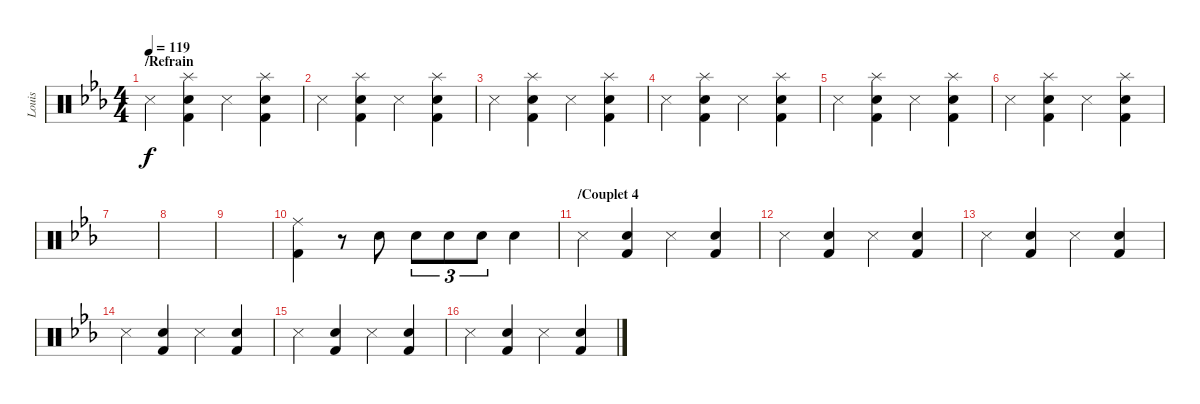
\track ("Louis" "Louis") {instrument percussion}
\staff {score}
\articulation defaults
\ts (4 4)
\section ("" "/Refrain")
\tempo 119
\clef neutral
\ks cminor "Metronome (hit)".4{dy f}
("Splash (hit)" "Kick (hit) 2" "Snare (hit) 2").4 "Metronome (hit)".4 ("Splash (hit)" "Kick (hit) 2" "Snare (hit) 2").4 |
"Metronome (hit)".4 ("Splash (hit)" "Kick (hit) 2" "Snare (hit) 2").4 "Metronome (hit)".4 ("Splash (hit)" "Kick (hit) 2" "Snare (hit) 2").4 |
"Metronome (hit)".4 ("Splash (hit)" "Kick (hit) 2" "Snare (hit) 2").4 "Metronome (hit)".4 ("Splash (hit)" "Kick (hit) 2" "Snare (hit) 2").4 |
"Metronome (hit)".4 ("Splash (hit)" "Kick (hit) 2" "Snare (hit) 2").4 "Metronome (hit)".4 ("Splash (hit)" "Kick (hit) 2" "Snare (hit) 2").4 |
"Metronome (hit)".4 ("Splash (hit)" "Kick (hit) 2" "Snare (hit) 2").4 "Metronome (hit)".4 ("Splash (hit)" "Kick (hit) 2" "Snare (hit) 2").4 |
"Metronome (hit)".4 ("Splash (hit)" "Kick (hit) 2" "Snare (hit) 2").4 "Metronome (hit)".4 ("Splash (hit)" "Kick (hit) 2" "Snare (hit) 2").4 |
|
|
|
("Ride (middle)" "Kick (hit) 2").4 r.8 "Electric Snare (hit)".8 "Electric Snare (hit)".8{tu (3 2)} "Electric Snare (hit)".8{tu (3 2)} "Electric Snare (hit)".8{tu (3 2)} "Electric Snare (hit)".4 |
\section ("" "/Couplet 4")
"Metronome (hit)".4 ("Kick (hit) 2" "Snare (hit) 2").4 "Metronome (hit)".4 ("Kick (hit) 2" "Snare (hit) 2").4 |
"Metronome (hit)".4 ("Kick (hit) 2" "Snare (hit) 2").4 "Metronome (hit)".4 ("Kick (hit) 2" "Snare (hit) 2").4 |
"Metronome (hit)".4 ("Kick (hit) 2" "Snare (hit) 2").4 "Metronome (hit)".4 ("Kick (hit) 2" "Snare (hit) 2").4 |
"Metronome (hit)".4 ("Kick (hit) 2" "Snare (hit) 2").4 "Metronome (hit)".4 ("Kick (hit) 2" "Snare (hit) 2").4 |
"Metronome (hit)".4 ("Kick (hit) 2" "Snare (hit) 2").4 "Metronome (hit)".4 ("Kick (hit) 2" "Snare (hit) 2").4 |
"Metronome (hit)".4 ("Kick (hit) 2" "Snare (hit) 2").4 "Metronome (hit)".4 ("Kick (hit) 2" "Snare (hit) 2").4
